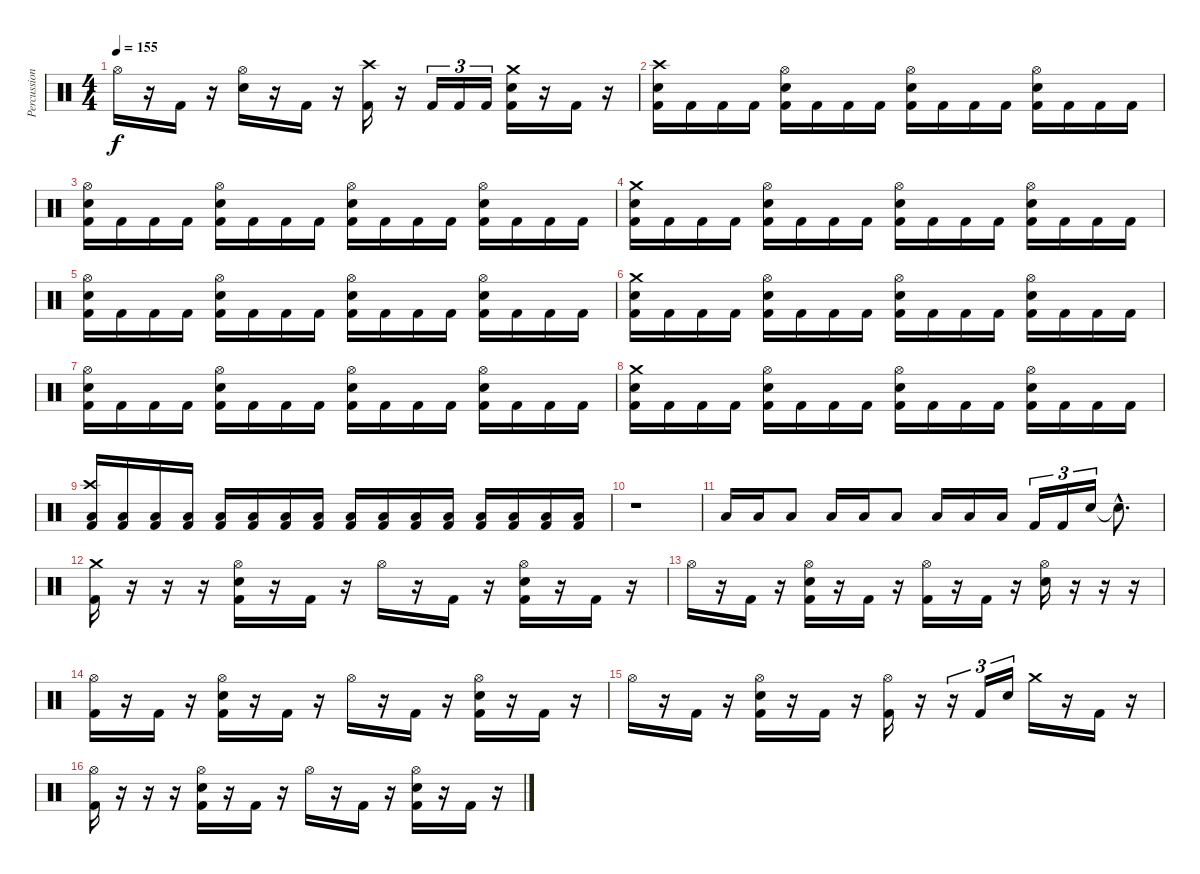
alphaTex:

\track ("Percussion" "Percussion") {instrument percussion}
\staff {score}
\articulation defaults
\ts (4 4)
\tempo 155
\clef neutral
\ks c "Hi-Hat (open)".16{dy f}
r.16 "Kick (hit) 2".16 r.16 ("Hi-Hat (open)" "Snare (hit) 2").16 r.16 "Kick (hit) 2".16 r.16 ("Crash high (hit)" "Kick (hit) 2").16 r.16 "Kick (hit) 2".16{tu (3 2)} "Kick (hit) 2".16{tu (3 2)} "Kick (hit) 2".16{tu (3 2)} ("Crash medium (hit)" "Snare (hit) 2" "Kick (hit) 2").16 r.16 "Kick (hit) 2".16 r.16 |
("Crash high (hit)" "Snare (hit) 2" "Kick (hit) 2").16 "Kick (hit) 2".16 "Kick (hit) 2".16 "Kick (hit) 2".16 ("Hi-Hat (open)" "Snare (hit) 2" "Kick (hit) 2").16 "Kick (hit) 2".16 "Kick (hit) 2".16 "Kick (hit) 2".16 ("Hi-Hat (open)" "Snare (hit) 2" "Kick (hit) 2").16 "Kick (hit) 2".16 "Kick (hit) 2".16 "Kick (hit) 2".16 ("Hi-Hat (open)" "Snare (hit) 2" "Kick (hit) 2").16 "Kick (hit) 2".16 "Kick (hit) 2".16 "Kick (hit) 2".16 |
("Hi-Hat (open)" "Snare (hit) 2" "Kick (hit) 2").16 "Kick (hit) 2".16 "Kick (hit) 2".16 "Kick (hit) 2".16 ("Hi-Hat (open)" "Snare (hit) 2" "Kick (hit) 2").16 "Kick (hit) 2".16 "Kick (hit) 2".16 "Kick (hit) 2".16 ("Hi-Hat (open)" "Snare (hit) 2" "Kick (hit) 2").16 "Kick (hit) 2".16 "Kick (hit) 2".16 "Kick (hit) 2".16 ("Hi-Hat (open)" "Snare (hit) 2" "Kick (hit) 2").16 "Kick (hit) 2".16 "Kick (hit) 2".16 "Kick (hit) 2".16 |
("Crash medium (hit)" "Snare (hit) 2" "Kick (hit) 2").16 "Kick (hit) 2".16 "Kick (hit) 2".16 "Kick (hit) 2".16 ("Hi-Hat (open)" "Snare (hit) 2" "Kick (hit) 2").16 "Kick (hit) 2".16 "Kick (hit) 2".16 "Kick (hit) 2".16 ("Hi-Hat (open)" "Snare (hit) 2" "Kick (hit) 2").16 "Kick (hit) 2".16 "Kick (hit) 2".16 "Kick (hit) 2".16 ("Hi-Hat (open)" "Snare (hit) 2" "Kick (hit) 2").16 "Kick (hit) 2".16 "Kick (hit) 2".16 "Kick (hit) 2".16 |
("Hi-Hat (open)" "Snare (hit) 2" "Kick (hit) 2").16 "Kick (hit) 2".16 "Kick (hit) 2".16 "Kick (hit) 2".16 ("Hi-Hat (open)" "Snare (hit) 2" "Kick (hit) 2").16 "Kick (hit) 2".16 "Kick (hit) 2".16 "Kick (hit) 2".16 ("Hi-Hat (open)" "Snare (hit) 2" "Kick (hit) 2").16 "Kick (hit) 2".16 "Kick (hit) 2".16 "Kick (hit) 2".16 ("Hi-Hat (open)" "Snare (hit) 2" "Kick (hit) 2").16 "Kick (hit) 2".16 "Kick (hit) 2".16 "Kick (hit) 2".16 |
("Crash medium (hit)" "Snare (hit) 2" "Kick (hit) 2").16 "Kick (hit) 2".16 "Kick (hit) 2".16 "Kick (hit) 2".16 ("Hi-Hat (open)" "Snare (hit) 2" "Kick (hit) 2").16 "Kick (hit) 2".16 "Kick (hit) 2".16 "Kick (hit) 2".16 ("Hi-Hat (open)" "Snare (hit) 2" "Kick (hit) 2").16 "Kick (hit) 2".16 "Kick (hit) 2".16 "Kick (hit) 2".16 ("Hi-Hat (open)" "Snare (hit) 2" "Kick (hit) 2").16 "Kick (hit) 2".16 "Kick (hit) 2".16 "Kick (hit) 2".16 |
("Hi-Hat (open)" "Snare (hit) 2" "Kick (hit) 2").16 "Kick (hit) 2".16 "Kick (hit) 2".16 "Kick (hit) 2".16 ("Hi-Hat (open)" "Snare (hit) 2" "Kick (hit) 2").16 "Kick (hit) 2".16 "Kick (hit) 2".16 "Kick (hit) 2".16 ("Hi-Hat (open)" "Snare (hit) 2" "Kick (hit) 2").16 "Kick (hit) 2".16 "Kick (hit) 2".16 "Kick (hit) 2".16 ("Hi-Hat (open)" "Snare (hit) 2" "Kick (hit) 2").16 "Kick (hit) 2".16 "Kick (hit) 2".16 "Kick (hit) 2".16 |
("Crash medium (hit)" "Snare (hit) 2" "Kick (hit) 2").16 "Kick (hit) 2".16 "Kick (hit) 2".16 "Kick (hit) 2".16 ("Hi-Hat (open)" "Snare (hit) 2" "Kick (hit) 2").16 "Kick (hit) 2".16 "Kick (hit) 2".16 "Kick (hit) 2".16 ("Hi-Hat (open)" "Snare (hit) 2" "Kick (hit) 2").16 "Kick (hit) 2".16 "Kick (hit) 2".16 "Kick (hit) 2".16 ("Hi-Hat (open)" "Snare (hit) 2" "Kick (hit) 2").16 "Kick (hit) 2".16 "Kick (hit) 2".16 "Kick (hit) 2".16 |
("Crash high (hit)" "Low Floor Tom (hit)" "Kick (hit) 2").16 ("Low Floor Tom (hit)" "Kick (hit) 2").16 ("Low Floor Tom (hit)" "Kick (hit) 2").16 ("Low Floor Tom (hit)" "Kick (hit) 2").16 ("Low Floor Tom (hit)" "Kick (hit) 2").16 ("Low Floor Tom (hit)" "Kick (hit) 2").16 ("Low Floor Tom (hit)" "Kick (hit) 2").16 ("Low Floor Tom (hit)" "Kick (hit) 2").16 ("Low Floor Tom (hit)" "Kick (hit) 2").16 ("Low Floor Tom (hit)" "Kick (hit) 2").16 ("Low Floor Tom (hit)" "Kick (hit) 2").16 ("Low Floor Tom (hit)" "Kick (hit) 2").16 ("Low Floor Tom (hit)" "Kick (hit) 2").16 ("Low Floor Tom (hit)" "Kick (hit) 2").16 ("Low Floor Tom (hit)" "Kick (hit) 2").16 ("Low Floor Tom (hit)" "Kick (hit) 2").16 |
r.1 |
"Low Floor Tom (hit)".16 "Low Floor Tom (hit)".16 "Low Floor Tom (hit)".8 "Low Floor Tom (hit)".16 "Low Floor Tom (hit)".16 "Low Floor Tom (hit)".8 "Low Floor Tom (hit)".16 "Low Floor Tom (hit)".16 "Low Floor Tom (hit)".16 "Kick (hit) 2".16{tu (3 2)} "Kick (hit) 2".16{tu (3 2)} "Snare (hit) 2".16{tu (3 2)} "Snare (hit) 2"{hac t}.8{d} |
("Crash medium (hit)" "Kick (hit) 2").16 r.16 r.16 r.16 ("Hi-Hat (open)" "Snare (hit) 2" "Kick (hit) 2").16 r.16 "Kick (hit) 2".16 r.16 "Hi-Hat (open)".16 r.16 "Kick (hit) 2".16 r.16 ("Hi-Hat (open)" "Snare (hit) 2" "Kick (hit) 2").16 r.16 "Kick (hit) 2".16 r.16 |
"Hi-Hat (open)".16 r.16 "Kick (hit) 2".16 r.16 ("Hi-Hat (open)" "Snare (hit) 2" "Kick (hit) 2").16 r.16 "Kick (hit) 2".16 r.16 ("Hi-Hat (open)" "Kick (hit) 2").16 r.16 "Kick (hit) 2".16 r.16 ("Hi-Hat (open)" "Snare (hit) 2").16 r.16 r.16 r.16 |
("Hi-Hat (open)" "Kick (hit) 2").16 r.16 "Kick (hit) 2".16 r.16 ("Hi-Hat (open)" "Snare (hit) 2" "Kick (hit) 2").16 r.16 "Kick (hit) 2".16 r.16 "Hi-Hat (open)".16 r.16 "Kick (hit) 2".16 r.16 ("Hi-Hat (open)" "Snare (hit) 2" "Kick (hit) 2").16 r.16 "Kick (hit) 2".16 r.16 |
"Hi-Hat (open)".16 r.16 "Kick (hit) 2".16 r.16 ("Hi-Hat (open)" "Snare (hit) 2" "Kick (hit) 2").16 r.16 "Kick (hit) 2".16 r.16 ("Hi-Hat (open)" "Kick (hit) 2").16 r.16 r.16{tu (3 2)} "Kick (hit) 2".16{tu (3 2)} "Snare (hit) 2".16{tu (3 2)} "Crash medium (hit)".16 r.16 "Kick (hit) 2".16 r.16 |
("Hi-Hat (open)" "Kick (hit) 2").16 r.16 r.16 r.16 ("Hi-Hat (open)" "Snare (hit) 2" "Kick (hit) 2").16 r.16 "Kick (hit) 2".16 r.16 "Hi-Hat (open)".16 r.16 "Kick (hit) 2".16 r.16 ("Hi-Hat (open)" "Snare (hit) 2" "Kick (hit) 2").16 r.16 "Kick (hit) 2".16 r.16
